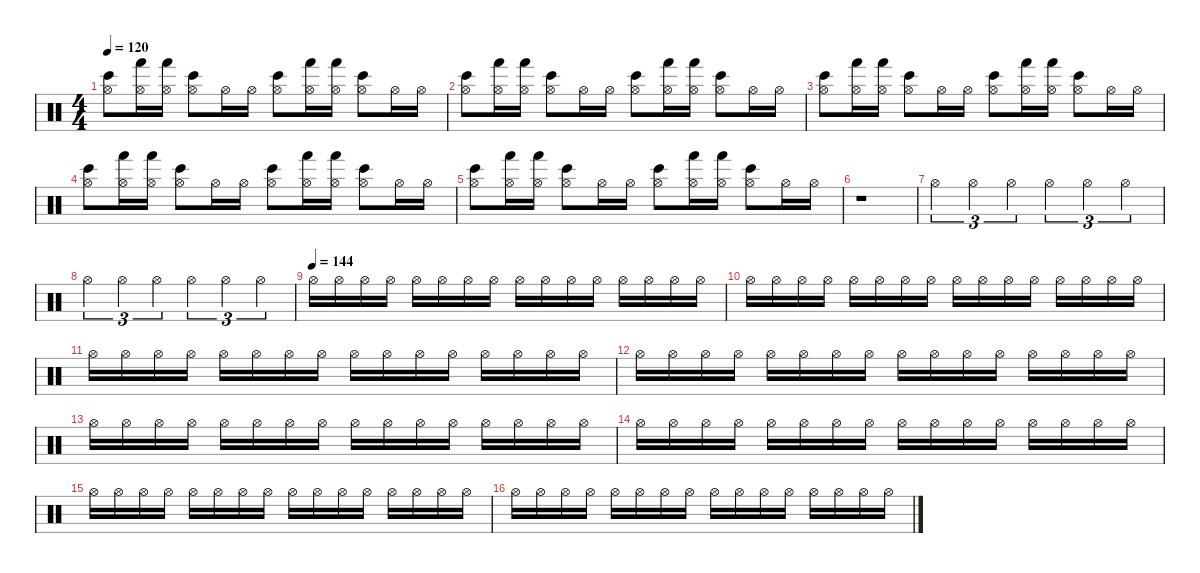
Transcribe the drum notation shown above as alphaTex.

\defaultSystemsLayout 4
\hideDynamics
\bracketExtendMode nobrackets
\singleTrackTrackNamePolicy hidden
\multiTrackTrackNamePolicy hidden
\firstSystemTrackNameMode fullname
\firstSystemTrackNameOrientation horizontal
\otherSystemsTrackNameOrientation horizontal
\track ("Bateria" "drm.") {instrument percussion}
\staff {score}
\articulation defaults
\ts (4 4)
\tempo 120
\clef neutral
\ks c
("Hi-Hat (open)" "Bongo High (hit)").8{dy mf beam Down} ("Hi-Hat (open)" "Hand (hit)").16{dy mp beam Down} ("Hi-Hat (open)" "Hand (hit)").16{beam Down} ("Hi-Hat (open)" "Bongo High (hit)").8{dy f beam Down} "Hi-Hat (open)".16{dy mp beam Down} "Hi-Hat (open)".16{beam Down} ("Hi-Hat (open)" "Bongo High (hit)").8{dy mf beam Down} ("Hi-Hat (open)" "Hand (hit)").16{dy mp beam Down} ("Hi-Hat (open)" "Hand (hit)").16{beam Down} ("Hi-Hat (open)" "Bongo High (hit)").8{dy f beam Down} "Hi-Hat (open)".16{dy mp beam Down} "Hi-Hat (open)".16{beam Down} |
("Hi-Hat (open)" "Bongo High (hit)").8{dy mf beam Down} ("Hi-Hat (open)" "Hand (hit)").16{dy mp beam Down} ("Hi-Hat (open)" "Hand (hit)").16{beam Down} ("Hi-Hat (open)" "Bongo High (hit)").8{dy f beam Down} "Hi-Hat (open)".16{dy mp beam Down} "Hi-Hat (open)".16{beam Down} ("Hi-Hat (open)" "Bongo High (hit)").8{dy mf beam Down} ("Hi-Hat (open)" "Hand (hit)").16{dy mp beam Down} ("Hi-Hat (open)" "Hand (hit)").16{beam Down} ("Hi-Hat (open)" "Bongo High (hit)").8{dy f beam Down} "Hi-Hat (open)".16{dy mp beam Down} "Hi-Hat (open)".16{beam Down} |
("Hi-Hat (open)" "Bongo High (hit)").8{dy mf beam Down} ("Hi-Hat (open)" "Hand (hit)").16{dy mp beam Down} ("Hi-Hat (open)" "Hand (hit)").16{beam Down} ("Hi-Hat (open)" "Bongo High (hit)").8{dy f beam Down} "Hi-Hat (open)".16{dy mp beam Down} "Hi-Hat (open)".16{beam Down} ("Hi-Hat (open)" "Bongo High (hit)").8{dy mf beam Down} ("Hi-Hat (open)" "Hand (hit)").16{dy mp beam Down} ("Hi-Hat (open)" "Hand (hit)").16{beam Down} ("Hi-Hat (open)" "Bongo High (hit)").8{dy f beam Down} "Hi-Hat (open)".16{dy mp beam Down} "Hi-Hat (open)".16{beam Down} |
("Hi-Hat (open)" "Bongo High (hit)").8{dy mf beam Down} ("Hi-Hat (open)" "Hand (hit)").16{dy mp beam Down} ("Hi-Hat (open)" "Hand (hit)").16{beam Down} ("Hi-Hat (open)" "Bongo High (hit)").8{dy f beam Down} "Hi-Hat (open)".16{dy mp beam Down} "Hi-Hat (open)".16{beam Down} ("Hi-Hat (open)" "Bongo High (hit)").8{dy mf beam Down} ("Hi-Hat (open)" "Hand (hit)").16{dy mp beam Down} ("Hi-Hat (open)" "Hand (hit)").16{beam Down} ("Hi-Hat (open)" "Bongo High (hit)").8{dy f beam Down} "Hi-Hat (open)".16{dy mp beam Down} "Hi-Hat (open)".16{beam Down} |
("Hi-Hat (open)" "Bongo High (hit)").8{dy mf beam Down} ("Hi-Hat (open)" "Hand (hit)").16{dy mp beam Down} ("Hi-Hat (open)" "Hand (hit)").16{beam Down} ("Hi-Hat (open)" "Bongo High (hit)").8{dy f beam Down} "Hi-Hat (open)".16{dy mp beam Down} "Hi-Hat (open)".16{beam Down} ("Hi-Hat (open)" "Bongo High (hit)").8{dy mf beam Down} ("Hi-Hat (open)" "Hand (hit)").16{dy mp beam Down} ("Hi-Hat (open)" "Hand (hit)").16{beam Down} ("Hi-Hat (open)" "Bongo High (hit)").8{dy f beam Down} "Hi-Hat (open)".16{dy mp beam Down} "Hi-Hat (open)".16{beam Down} |
r.1{beam Down} |
"Hi-Hat (open)".4{tu (3 2) dy f beam Down} "Hi-Hat (open)".4{tu (3 2) beam Down} "Hi-Hat (open)".4{tu (3 2) beam Down} "Hi-Hat (open)".4{tu (3 2) beam Down} "Hi-Hat (open)".4{tu (3 2) beam Down} "Hi-Hat (open)".4{tu (3 2) beam Down} |
"Hi-Hat (open)".4{tu (3 2) beam Down} "Hi-Hat (open)".4{tu (3 2) beam Down} "Hi-Hat (open)".4{tu (3 2) beam Down} "Hi-Hat (open)".4{tu (3 2) beam Down} "Hi-Hat (open)".4{tu (3 2) beam Down} "Hi-Hat (open)".4{tu (3 2) beam Down} |
\tempo (144)
"Hi-Hat (open)".16{beam Down} "Hi-Hat (open)".16{beam Down} "Hi-Hat (open)".16{beam Down} "Hi-Hat (open)".16{beam Down} "Hi-Hat (open)".16{beam Down} "Hi-Hat (open)".16{beam Down} "Hi-Hat (open)".16{beam Down} "Hi-Hat (open)".16{beam Down} "Hi-Hat (open)".16{beam Down} "Hi-Hat (open)".16{beam Down} "Hi-Hat (open)".16{beam Down} "Hi-Hat (open)".16{beam Down} "Hi-Hat (open)".16{beam Down} "Hi-Hat (open)".16{beam Down} "Hi-Hat (open)".16{beam Down} "Hi-Hat (open)".16{beam Down} |
"Hi-Hat (open)".16{beam Down} "Hi-Hat (open)".16{beam Down} "Hi-Hat (open)".16{beam Down} "Hi-Hat (open)".16{beam Down} "Hi-Hat (open)".16{beam Down} "Hi-Hat (open)".16{beam Down} "Hi-Hat (open)".16{beam Down} "Hi-Hat (open)".16{beam Down} "Hi-Hat (open)".16{beam Down} "Hi-Hat (open)".16{beam Down} "Hi-Hat (open)".16{beam Down} "Hi-Hat (open)".16{beam Down} "Hi-Hat (open)".16{beam Down} "Hi-Hat (open)".16{beam Down} "Hi-Hat (open)".16{beam Down} "Hi-Hat (open)".16{beam Down} |
"Hi-Hat (open)".16{beam Down} "Hi-Hat (open)".16{beam Down} "Hi-Hat (open)".16{beam Down} "Hi-Hat (open)".16{beam Down} "Hi-Hat (open)".16{beam Down} "Hi-Hat (open)".16{beam Down} "Hi-Hat (open)".16{beam Down} "Hi-Hat (open)".16{beam Down} "Hi-Hat (open)".16{beam Down} "Hi-Hat (open)".16{beam Down} "Hi-Hat (open)".16{beam Down} "Hi-Hat (open)".16{beam Down} "Hi-Hat (open)".16{beam Down} "Hi-Hat (open)".16{beam Down} "Hi-Hat (open)".16{beam Down} "Hi-Hat (open)".16{beam Down} |
"Hi-Hat (open)".16{beam Down} "Hi-Hat (open)".16{beam Down} "Hi-Hat (open)".16{beam Down} "Hi-Hat (open)".16{beam Down} "Hi-Hat (open)".16{beam Down} "Hi-Hat (open)".16{beam Down} "Hi-Hat (open)".16{beam Down} "Hi-Hat (open)".16{beam Down} "Hi-Hat (open)".16{beam Down} "Hi-Hat (open)".16{beam Down} "Hi-Hat (open)".16{beam Down} "Hi-Hat (open)".16{beam Down} "Hi-Hat (open)".16{beam Down} "Hi-Hat (open)".16{beam Down} "Hi-Hat (open)".16{beam Down} "Hi-Hat (open)".16{beam Down} |
"Hi-Hat (open)".16{beam Down} "Hi-Hat (open)".16{beam Down} "Hi-Hat (open)".16{beam Down} "Hi-Hat (open)".16{beam Down} "Hi-Hat (open)".16{beam Down} "Hi-Hat (open)".16{beam Down} "Hi-Hat (open)".16{beam Down} "Hi-Hat (open)".16{beam Down} "Hi-Hat (open)".16{beam Down} "Hi-Hat (open)".16{beam Down} "Hi-Hat (open)".16{beam Down} "Hi-Hat (open)".16{beam Down} "Hi-Hat (open)".16{beam Down} "Hi-Hat (open)".16{beam Down} "Hi-Hat (open)".16{beam Down} "Hi-Hat (open)".16{beam Down} |
"Hi-Hat (open)".16{beam Down} "Hi-Hat (open)".16{beam Down} "Hi-Hat (open)".16{beam Down} "Hi-Hat (open)".16{beam Down} "Hi-Hat (open)".16{beam Down} "Hi-Hat (open)".16{beam Down} "Hi-Hat (open)".16{beam Down} "Hi-Hat (open)".16{beam Down} "Hi-Hat (open)".16{beam Down} "Hi-Hat (open)".16{beam Down} "Hi-Hat (open)".16{beam Down} "Hi-Hat (open)".16{beam Down} "Hi-Hat (open)".16{beam Down} "Hi-Hat (open)".16{beam Down} "Hi-Hat (open)".16{beam Down} "Hi-Hat (open)".16{beam Down} |
"Hi-Hat (open)".16{beam Down} "Hi-Hat (open)".16{beam Down} "Hi-Hat (open)".16{beam Down} "Hi-Hat (open)".16{beam Down} "Hi-Hat (open)".16{beam Down} "Hi-Hat (open)".16{beam Down} "Hi-Hat (open)".16{beam Down} "Hi-Hat (open)".16{beam Down} "Hi-Hat (open)".16{beam Down} "Hi-Hat (open)".16{beam Down} "Hi-Hat (open)".16{beam Down} "Hi-Hat (open)".16{beam Down} "Hi-Hat (open)".16{beam Down} "Hi-Hat (open)".16{beam Down} "Hi-Hat (open)".16{beam Down} "Hi-Hat (open)".16{beam Down} |
"Hi-Hat (open)".16{beam Down} "Hi-Hat (open)".16{beam Down} "Hi-Hat (open)".16{beam Down} "Hi-Hat (open)".16{beam Down} "Hi-Hat (open)".16{beam Down} "Hi-Hat (open)".16{beam Down} "Hi-Hat (open)".16{beam Down} "Hi-Hat (open)".16{beam Down} "Hi-Hat (open)".16{beam Down} "Hi-Hat (open)".16{beam Down} "Hi-Hat (open)".16{beam Down} "Hi-Hat (open)".16{beam Down} "Hi-Hat (open)".16{beam Down} "Hi-Hat (open)".16{beam Down} "Hi-Hat (open)".16{beam Down} "Hi-Hat (open)".16{beam Down}
